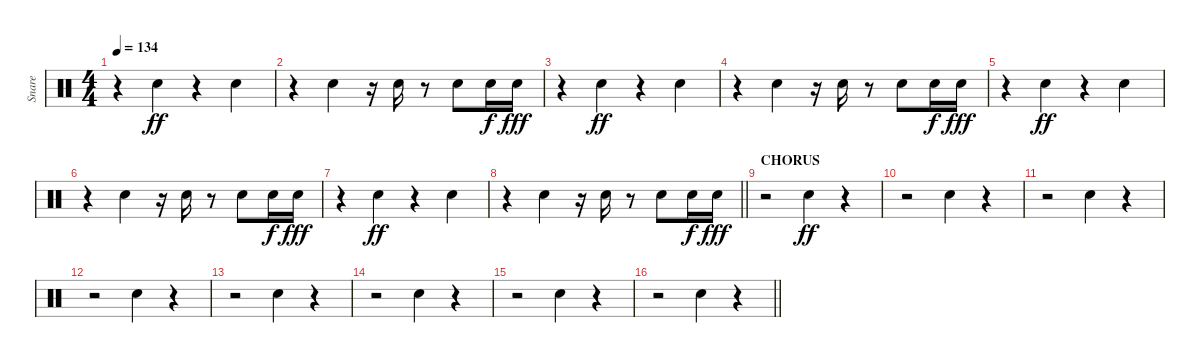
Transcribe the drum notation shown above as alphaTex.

\track ("Snare" "Snare") {instrument percussion}
\staff {score}
\articulation defaults
\ts (4 4)
\tempo 134
\clef neutral
\ks c
r.4{dy fff} "Snare (hit) 2".4{dy ff} r.4 "Snare (hit) 2".4 |
r.4 "Snare (hit) 2".4 r.16 "Snare (hit) 2".16 r.8 "Snare (hit) 2".8 "Snare (hit) 2".16{dy f} "Snare (hit) 2".16{dy fff} |
r.4 "Snare (hit) 2".4{dy ff} r.4 "Snare (hit) 2".4 |
r.4 "Snare (hit) 2".4 r.16 "Snare (hit) 2".16 r.8 "Snare (hit) 2".8 "Snare (hit) 2".16{dy f} "Snare (hit) 2".16{dy fff} |
r.4 "Snare (hit) 2".4{dy ff} r.4 "Snare (hit) 2".4 |
r.4 "Snare (hit) 2".4 r.16 "Snare (hit) 2".16 r.8 "Snare (hit) 2".8 "Snare (hit) 2".16{dy f} "Snare (hit) 2".16{dy fff} |
r.4 "Snare (hit) 2".4{dy ff} r.4 "Snare (hit) 2".4 |
\barLineRight lightlight
r.4 "Snare (hit) 2".4 r.16 "Snare (hit) 2".16 r.8 "Snare (hit) 2".8 "Snare (hit) 2".16{dy f} "Snare (hit) 2".16{dy fff} |
\section ("" "CHORUS")
r.2 "Snare (hit) 2".4{dy ff} r.4 |
r.2 "Snare (hit) 2".4 r.4 |
r.2 "Snare (hit) 2".4 r.4 |
r.2 "Snare (hit) 2".4 r.4 |
r.2 "Snare (hit) 2".4 r.4 |
r.2 "Snare (hit) 2".4 r.4 |
r.2 "Snare (hit) 2".4 r.4 |
\barLineRight lightlight
r.2 "Snare (hit) 2".4 r.4
